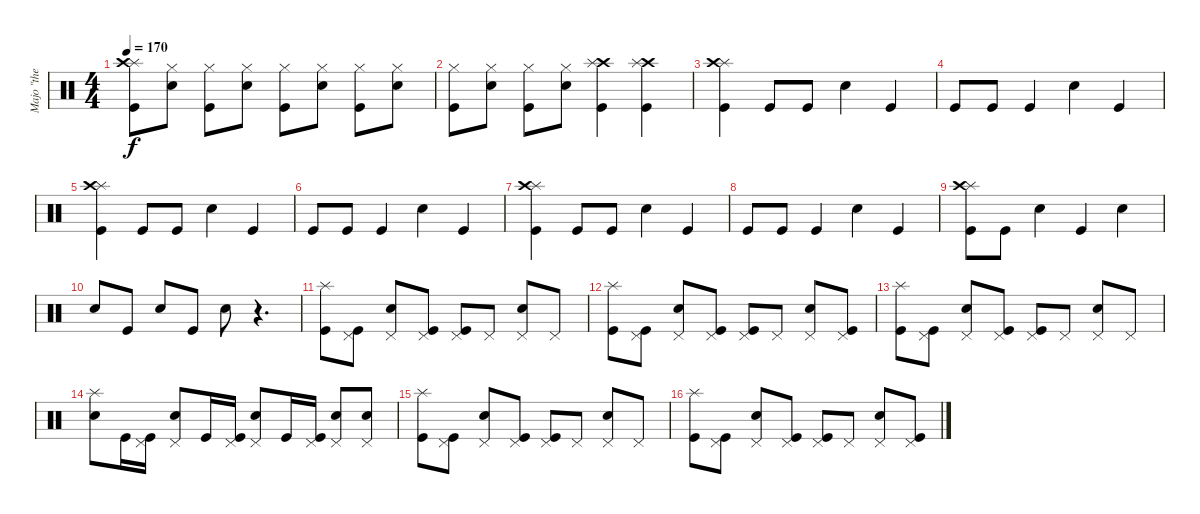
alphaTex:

\track ("Majo \"the Dremmel\" Hirt" "Majo \"the ") {instrument percussion}
\staff {score}
\articulation defaults
\ts (4 4)
\tempo 170
\clef neutral
\ks c
("Splash (hit)" "Crash high (hit)" "Kick (hit)").8{dy f} ("Hi-Hat (closed)" "Electric Snare (hit)").8 ("Hi-Hat (closed)" "Kick (hit)").8 ("Hi-Hat (closed)" "Electric Snare (hit)").8 ("Hi-Hat (closed)" "Kick (hit)").8 ("Hi-Hat (closed)" "Electric Snare (hit)").8 ("Hi-Hat (closed)" "Kick (hit)").8 ("Hi-Hat (closed)" "Electric Snare (hit)").8 |
("Hi-Hat (closed)" "Kick (hit)").8 ("Hi-Hat (closed)" "Electric Snare (hit)").8 ("Hi-Hat (closed)" "Kick (hit)").8 ("Hi-Hat (closed)" "Electric Snare (hit)").8 ("Crash high (hit)" "Splash (hit)" "Kick (hit)").4 ("Crash high (hit)" "Splash (hit)" "Kick (hit)").4 |
("Splash (hit)" "Crash high (hit)" "Kick (hit)").4 "Kick (hit)".8 "Kick (hit)".8 "Electric Snare (hit)".4 "Kick (hit)".4 |
"Kick (hit)".8 "Kick (hit)".8 "Kick (hit)".4 "Electric Snare (hit)".4 "Kick (hit)".4 |
("Splash (hit)" "Crash high (hit)" "Kick (hit)").4 "Kick (hit)".8 "Kick (hit)".8 "Electric Snare (hit)".4 "Kick (hit)".4 |
"Kick (hit)".8 "Kick (hit)".8 "Kick (hit)".4 "Electric Snare (hit)".4 "Kick (hit)".4 |
("Splash (hit)" "Crash high (hit)" "Kick (hit)").4 "Kick (hit)".8 "Kick (hit)".8 "Electric Snare (hit)".4 "Kick (hit)".4 |
"Kick (hit)".8 "Kick (hit)".8 "Kick (hit)".4 "Electric Snare (hit)".4 "Kick (hit)".4 |
("Splash (hit)" "Crash high (hit)" "Kick (hit)").8 "Kick (hit)".8 "Electric Snare (hit)".4 "Kick (hit)".4 "Electric Snare (hit)".4 |
"Electric Snare (hit)".8 "Kick (hit)".8 "Electric Snare (hit)".8 "Kick (hit)".8 "Electric Snare (hit)".8 r.4{d} |
("Splash (hit)" "Kick (hit)").8 ("Pedal Hi-Hat (hit)" "Kick (hit)").8 ("Pedal Hi-Hat (hit)" "Electric Snare (hit)").8 ("Pedal Hi-Hat (hit)" "Kick (hit)").8 ("Pedal Hi-Hat (hit)" "Kick (hit)").8 "Pedal Hi-Hat (hit)".8 ("Pedal Hi-Hat (hit)" "Electric Snare (hit)").8 "Pedal Hi-Hat (hit)".8 |
("Splash (hit)" "Kick (hit)").8 ("Pedal Hi-Hat (hit)" "Kick (hit)").8 ("Pedal Hi-Hat (hit)" "Electric Snare (hit)").8 ("Pedal Hi-Hat (hit)" "Kick (hit)").8 ("Pedal Hi-Hat (hit)" "Kick (hit)").8 "Pedal Hi-Hat (hit)".8 ("Pedal Hi-Hat (hit)" "Electric Snare (hit)").8 ("Pedal Hi-Hat (hit)" "Kick (hit)").8 |
("Splash (hit)" "Kick (hit)").8 ("Pedal Hi-Hat (hit)" "Kick (hit)").8 ("Pedal Hi-Hat (hit)" "Electric Snare (hit)").8 ("Pedal Hi-Hat (hit)" "Kick (hit)").8 ("Pedal Hi-Hat (hit)" "Kick (hit)").8 "Pedal Hi-Hat (hit)".8 ("Pedal Hi-Hat (hit)" "Electric Snare (hit)").8 "Pedal Hi-Hat (hit)".8 |
("Splash (hit)" "Electric Snare (hit)").8 "Kick (hit)".16 ("Pedal Hi-Hat (hit)" "Kick (hit)").16 ("Pedal Hi-Hat (hit)" "Electric Snare (hit)").8 "Kick (hit)".16 ("Pedal Hi-Hat (hit)" "Kick (hit)").16 ("Pedal Hi-Hat (hit)" "Electric Snare (hit)").8 "Kick (hit)".16 ("Pedal Hi-Hat (hit)" "Kick (hit)").16 ("Pedal Hi-Hat (hit)" "Electric Snare (hit)").8 ("Pedal Hi-Hat (hit)" "Electric Snare (hit)").8 |
("Splash (hit)" "Kick (hit)").8 ("Pedal Hi-Hat (hit)" "Kick (hit)").8 ("Pedal Hi-Hat (hit)" "Electric Snare (hit)").8 ("Pedal Hi-Hat (hit)" "Kick (hit)").8 ("Pedal Hi-Hat (hit)" "Kick (hit)").8 "Pedal Hi-Hat (hit)".8 ("Pedal Hi-Hat (hit)" "Electric Snare (hit)").8 "Pedal Hi-Hat (hit)".8 |
("Splash (hit)" "Kick (hit)").8 ("Pedal Hi-Hat (hit)" "Kick (hit)").8 ("Pedal Hi-Hat (hit)" "Electric Snare (hit)").8 ("Pedal Hi-Hat (hit)" "Kick (hit)").8 ("Pedal Hi-Hat (hit)" "Kick (hit)").8 "Pedal Hi-Hat (hit)".8 ("Pedal Hi-Hat (hit)" "Electric Snare (hit)").8 ("Pedal Hi-Hat (hit)" "Kick (hit)").8
